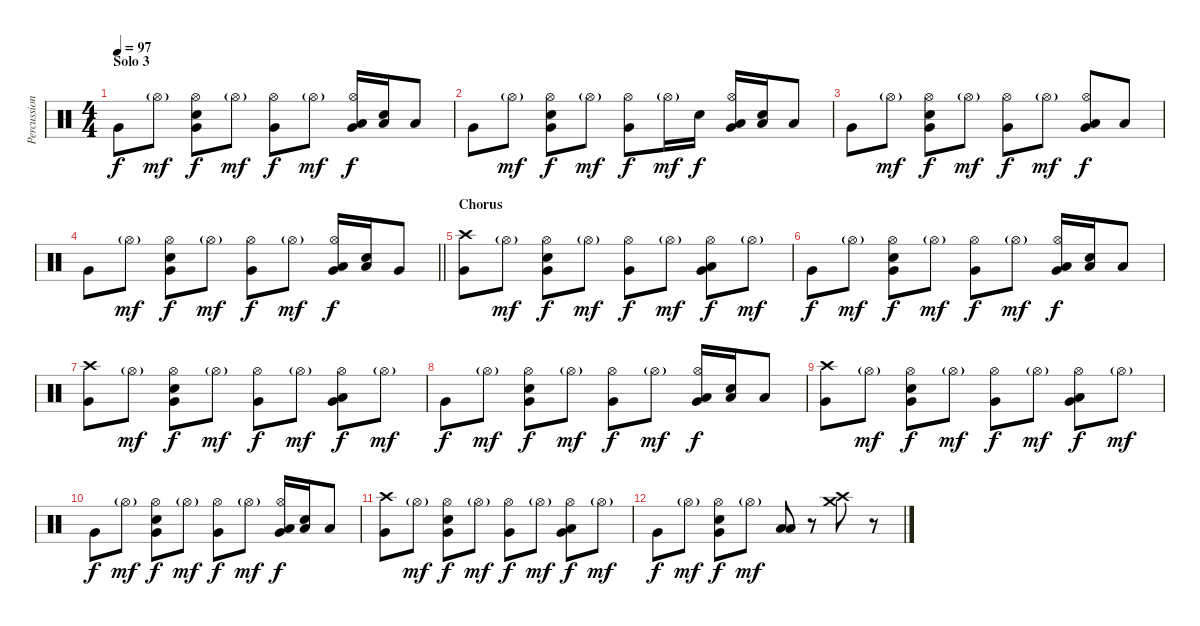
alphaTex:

\track ("Percussion" "Percussion") {instrument percussion}
\staff {score}
\articulation defaults
\ts (4 4)
\section ("" "Solo 3")
\tempo 97
\clef neutral
\ks c "Very Low Tom (hit)".8{dy f} "Hi-Hat (open)"{g}.8{dy mf}
("Hi-Hat (open)" "Very Low Tom (hit)" "Snare (hit) 2").8{dy f} "Hi-Hat (open)"{g}.8{dy mf} ("Hi-Hat (open)" "Very Low Tom (hit)").8{dy f} "Hi-Hat (open)"{g}.8{dy mf} ("Hi-Hat (open)" "Very Low Tom (hit)" "Low Tom (hit)").16{dy f} ("Low Tom (hit)" "Snare (hit) 2").16 "Low Floor Tom (hit)".8 |
"Very Low Tom (hit)".8 "Hi-Hat (open)"{g}.8{dy mf} ("Hi-Hat (open)" "Very Low Tom (hit)" "Snare (hit) 2").8{dy f} "Hi-Hat (open)"{g}.8{dy mf} ("Hi-Hat (open)" "Very Low Tom (hit)").8{dy f} "Hi-Hat (open)"{g}.16{dy mf} "Snare (hit) 2".16{dy f} ("Hi-Hat (open)" "Very Low Tom (hit)" "Low Tom (hit)").16 ("Low Tom (hit)" "Snare (hit) 2").16 "Low Floor Tom (hit)".8 |
"Very Low Tom (hit)".8 "Hi-Hat (open)"{g}.8{dy mf} ("Hi-Hat (open)" "Very Low Tom (hit)" "Snare (hit) 2").8{dy f} "Hi-Hat (open)"{g}.8{dy mf} ("Hi-Hat (open)" "Very Low Tom (hit)").8{dy f} "Hi-Hat (open)"{g}.8{dy mf} ("Hi-Hat (open)" "Very Low Tom (hit)" "Low Tom (hit)").8{dy f} "Low Tom (hit)".8 |
\barLineRight lightlight "Very Low Tom (hit)".8 "Hi-Hat (open)"{g}.8{dy mf}
("Hi-Hat (open)" "Very Low Tom (hit)" "Snare (hit) 2").8{dy f} "Hi-Hat (open)"{g}.8{dy mf} ("Hi-Hat (open)" "Very Low Tom (hit)").8{dy f} "Hi-Hat (open)"{g}.8{dy mf} ("Hi-Hat (open)" "Very Low Tom (hit)" "Low Tom (hit)").16{dy f} ("Low Tom (hit)" "Snare (hit) 2").16 "Very Low Tom (hit)".8 |
\section ("" "Chorus")
("Crash high (hit)" "Very Low Tom (hit)").8 "Hi-Hat (open)"{g}.8{dy mf} ("Hi-Hat (open)" "Very Low Tom (hit)" "Snare (hit) 2").8{dy f} "Hi-Hat (open)"{g}.8{dy mf} ("Hi-Hat (open)" "Very Low Tom (hit)").8{dy f} "Hi-Hat (open)"{g}.8{dy mf} ("Hi-Hat (open)" "Very Low Tom (hit)" "Low Tom (hit)").8{dy f} "Hi-Hat (open)"{g}.8{dy mf} |
"Very Low Tom (hit)".8{dy f} "Hi-Hat (open)"{g}.8{dy mf} ("Hi-Hat (open)" "Very Low Tom (hit)" "Snare (hit) 2").8{dy f} "Hi-Hat (open)"{g}.8{dy mf} ("Hi-Hat (open)" "Very Low Tom (hit)").8{dy f} "Hi-Hat (open)"{g}.8{dy mf} ("Hi-Hat (open)" "Very Low Tom (hit)" "Low Tom (hit)").16{dy f} ("Low Tom (hit)" "Snare (hit) 2").16 "Low Floor Tom (hit)".8 |
("Crash high (hit)" "Very Low Tom (hit)").8 "Hi-Hat (open)"{g}.8{dy mf} ("Hi-Hat (open)" "Very Low Tom (hit)" "Snare (hit) 2").8{dy f} "Hi-Hat (open)"{g}.8{dy mf} ("Hi-Hat (open)" "Very Low Tom (hit)").8{dy f} "Hi-Hat (open)"{g}.8{dy mf} ("Hi-Hat (open)" "Very Low Tom (hit)" "Low Tom (hit)").8{dy f} "Hi-Hat (open)"{g}.8{dy mf} |
"Very Low Tom (hit)".8{dy f} "Hi-Hat (open)"{g}.8{dy mf} ("Hi-Hat (open)" "Very Low Tom (hit)" "Snare (hit) 2").8{dy f} "Hi-Hat (open)"{g}.8{dy mf} ("Hi-Hat (open)" "Very Low Tom (hit)").8{dy f} "Hi-Hat (open)"{g}.8{dy mf} ("Hi-Hat (open)" "Very Low Tom (hit)" "Low Tom (hit)").16{dy f} ("Low Tom (hit)" "Snare (hit) 2").16 "Low Floor Tom (hit)".8 |
("Crash high (hit)" "Very Low Tom (hit)").8 "Hi-Hat (open)"{g}.8{dy mf} ("Hi-Hat (open)" "Very Low Tom (hit)" "Snare (hit) 2").8{dy f} "Hi-Hat (open)"{g}.8{dy mf} ("Hi-Hat (open)" "Very Low Tom (hit)").8{dy f} "Hi-Hat (open)"{g}.8{dy mf} ("Hi-Hat (open)" "Very Low Tom (hit)" "Low Tom (hit)").8{dy f} "Hi-Hat (open)"{g}.8{dy mf} |
"Very Low Tom (hit)".8{dy f} "Hi-Hat (open)"{g}.8{dy mf} ("Hi-Hat (open)" "Very Low Tom (hit)" "Snare (hit) 2").8{dy f} "Hi-Hat (open)"{g}.8{dy mf} ("Hi-Hat (open)" "Very Low Tom (hit)").8{dy f} "Hi-Hat (open)"{g}.8{dy mf} ("Hi-Hat (open)" "Very Low Tom (hit)" "Low Tom (hit)").16{dy f} ("Low Tom (hit)" "Snare (hit) 2").16 "Low Floor Tom (hit)".8 |
("Crash high (hit)" "Very Low Tom (hit)").8 "Hi-Hat (open)"{g}.8{dy mf} ("Hi-Hat (open)" "Very Low Tom (hit)" "Snare (hit) 2").8{dy f} "Hi-Hat (open)"{g}.8{dy mf} ("Hi-Hat (open)" "Very Low Tom (hit)").8{dy f} "Hi-Hat (open)"{g}.8{dy mf} ("Hi-Hat (open)" "Very Low Tom (hit)" "Low Tom (hit)").8{dy f} "Hi-Hat (open)"{g}.8{dy mf} |
"Very Low Tom (hit)".8{dy f} "Hi-Hat (open)"{g}.8{dy mf} ("Hi-Hat (open)" "Very Low Tom (hit)" "Snare (hit) 2").8{dy f} "Hi-Hat (open)"{g}.8{dy mf} ("Low Tom (hit)" "Low Tom (hit)").8 r.8 ("Crash high (hit)" "Crash medium (hit)").8 r.8
